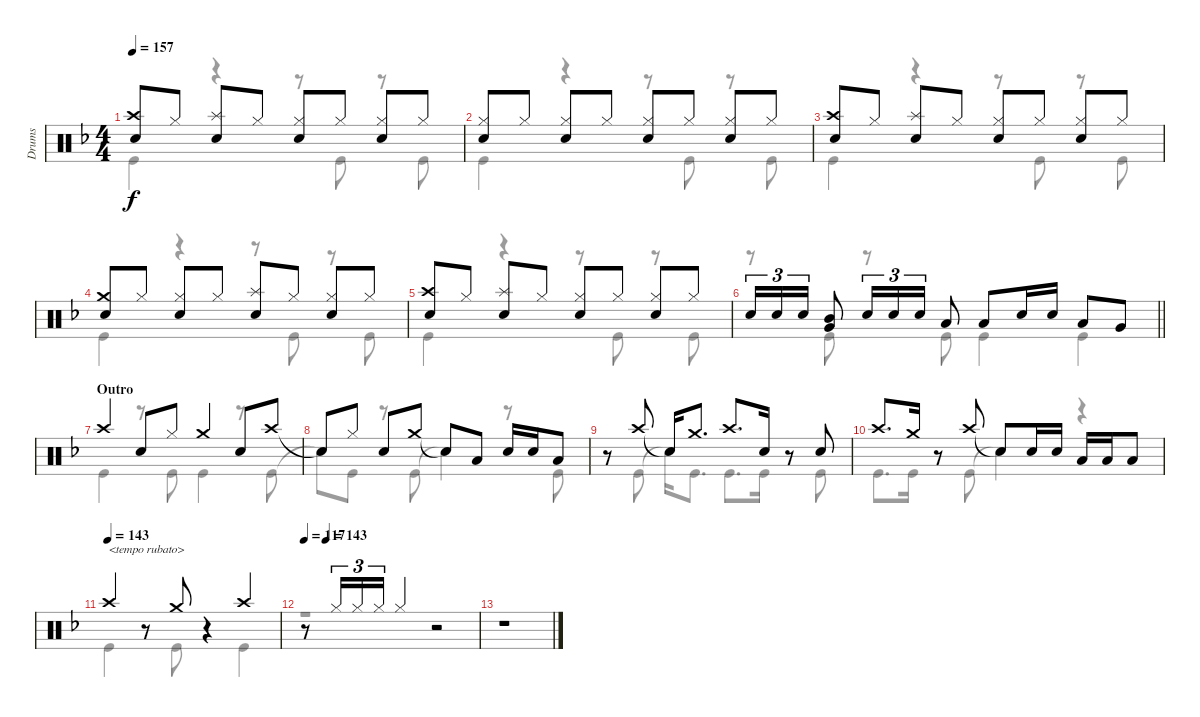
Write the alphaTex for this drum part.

\track ("Drums" "Drums") {instrument percussion}
\staff {score}
\articulation defaults
\voice
\ts (4 4)
\tempo 157
\clef neutral
\ks f
("Crash high (hit)" "Snare (hit) 2").8{dy f} "Hi-Hat (closed)".8 ("Splash (hit)" "Snare (hit) 2").8 "Hi-Hat (closed)".8 ("Hi-Hat (closed)" "Snare (hit) 2").8 "Hi-Hat (closed)".8 ("Hi-Hat (closed)" "Snare (hit) 2").8 "Hi-Hat (closed)".8 |
("Hi-Hat (closed)" "Snare (hit) 2").8 "Hi-Hat (closed)".8 ("Hi-Hat (closed)" "Snare (hit) 2").8 "Hi-Hat (closed)".8 ("Hi-Hat (closed)" "Snare (hit) 2").8 "Hi-Hat (closed)".8 ("Hi-Hat (closed)" "Snare (hit) 2").8 "Hi-Hat (closed)".8 |
("Crash high (hit)" "Snare (hit) 2").8 "Hi-Hat (closed)".8 ("Splash (hit)" "Snare (hit) 2").8 "Hi-Hat (closed)".8 ("Hi-Hat (closed)" "Snare (hit) 2").8 "Hi-Hat (closed)".8 ("Hi-Hat (closed)" "Snare (hit) 2").8 "Hi-Hat (closed)".8 |
("Crash medium (hit)" "Snare (hit) 2").8 "Hi-Hat (closed)".8 ("Hi-Hat (closed)" "Snare (hit) 2").8 "Hi-Hat (closed)".8 ("Splash (hit)" "Snare (hit) 2").8 "Hi-Hat (closed)".8 ("Hi-Hat (closed)" "Snare (hit) 2").8 "Hi-Hat (closed)".8 |
("Crash high (hit)" "Snare (hit) 2").8 "Hi-Hat (closed)".8 ("Splash (hit)" "Snare (hit) 2").8 "Hi-Hat (closed)".8 ("Hi-Hat (closed)" "Snare (hit) 2").8 "Hi-Hat (closed)".8 ("Hi-Hat (closed)" "Snare (hit) 2").8 "Hi-Hat (closed)".8 |
\barLineRight lightlight "Snare (hit) 2".16{tu (3 2)} "Snare (hit) 2".16{tu (3 2)} "Snare (hit) 2".16{tu (3 2)}
("Very Low Tom (hit)" "Mid Tom (hit)").8 "Snare (hit) 2".16{tu (3 2)} "Snare (hit) 2".16{tu (3 2)} "Snare (hit) 2".16{tu (3 2)} "Low Tom (hit)".8 "Low Tom (hit)".8 "Snare (hit) 2".16 "Snare (hit) 2".16 "Low Tom (hit)".8 "Very Low Tom (hit)".8 |
\section ("" "Outro")
"Crash high (hit)".4 "Snare (hit) 2".8 "Hi-Hat (closed)".8 "Crash medium (hit)".4 "Snare (hit) 2".8 "Crash high (hit)".8 |
"Snare (hit)"{t}.8 "Hi-Hat (closed)".8 "Snare (hit) 2".8 "Crash medium (hit)".8 "Snare (hit)"{t}.8 "Low Tom (hit)".8 "Snare (hit) 2".16 "Snare (hit) 2".16 "Low Tom (hit)".8 |
r.8 "Crash high (hit)".8 "Snare (hit)"{t}.16 "Crash medium (hit)".8{d} "Crash high (hit)".8{d} "Snare (hit) 2".16 r.8 "Snare (hit) 2".8 |
"Crash high (hit)".8{d} "Crash medium (hit)".16 r.8 "Crash high (hit)".8 "Snare (hit)"{t}.8 "Snare (hit) 2".16 "Snare (hit) 2".16 "Low Tom (hit)".16 "Low Tom (hit)".16 "Low Tom (hit)".8 |
\tempo (143)
"Crash high (hit)".4{txt "<tempo rubato>"} r.8 "Crash medium (hit)".8 r.4 "Crash high (hit)".4 |
\tempo 117
\tempo (143 0.125)
r.8 "Hi-Hat (closed)".16{tu (3 2)} "Hi-Hat (closed)".16{tu (3 2)} "Hi-Hat (closed)".16{tu (3 2)} "Hi-Hat (closed)".4 r.2 |
r.1
\voice
\clef neutral
\ottava regular
\simile none
\ks f "Kick (hit)".4{dy f}
r.4 r.8 "Kick (hit)".8 r.8 "Kick (hit)".8 |
"Kick (hit)".4 r.4 r.8 "Kick (hit)".8 r.8 "Kick (hit)".8 |
"Kick (hit)".4 r.4 r.8 "Kick (hit)".8 r.8 "Kick (hit)".8 |
"Kick (hit)".4 r.4 r.8 "Kick (hit)".8 r.8 "Kick (hit)".8 |
"Kick (hit)".4 r.4 r.8 "Kick (hit)".8 r.8 "Kick (hit)".8 |
\barLineRight lightlight
r.8 "Kick (hit)".8 r.8 "Kick (hit)".8 "Kick (hit)".4 "Kick (hit)".4 |
"Kick (hit)".4 r.8 "Kick (hit)".8 "Kick (hit)".4 r.8 "Kick (hit)".8 |
"Snare (hit)"{t}.8 "Kick (hit)".8 r.8 "Kick (hit)".8 "Snare (hit)"{t}.4 r.8 "Kick (hit)".8 |
r.8 "Kick (hit)".8 "Snare (hit)"{t}.16 "Kick (hit)".8{d} "Kick (hit)".8{d} "Kick (hit)".16 r.8 "Kick (hit)".8 |
"Kick (hit)".8{d} "Kick (hit)".16 r.8 "Kick (hit)".8 "Snare (hit)"{t}.4 r.4 |
"Kick (hit)".4 r.8 "Kick (hit)".8 r.4 "Kick (hit)".4 |
r.1 |
r.1
